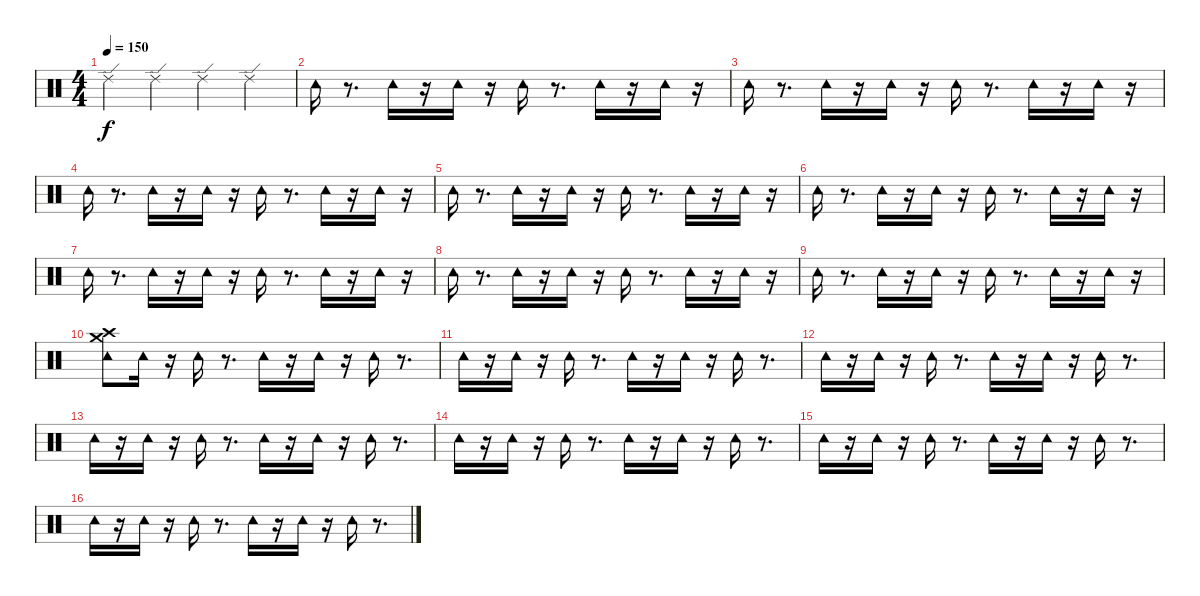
\track "" {instrument percussion}
\staff {score}
\articulation defaults
\ts (4 4)
\tempo 150
\clef neutral
\ks c "Ride (edge) 2".4{dy f} "Ride (edge) 2".4 "Ride (edge) 2".4 "Ride (edge) 2".4
|
"Tambourine (hit)".16 r.8{d} "Tambourine (hit)".16 r.16 "Tambourine (hit)".16 r.16 "Tambourine (hit)".16 r.8{d} "Tambourine (hit)".16 r.16 "Tambourine (hit)".16 r.16 |
"Tambourine (hit)".16 r.8{d} "Tambourine (hit)".16 r.16 "Tambourine (hit)".16 r.16 "Tambourine (hit)".16 r.8{d} "Tambourine (hit)".16 r.16 "Tambourine (hit)".16 r.16 |
"Tambourine (hit)".16 r.8{d} "Tambourine (hit)".16 r.16 "Tambourine (hit)".16 r.16 "Tambourine (hit)".16 r.8{d} "Tambourine (hit)".16 r.16 "Tambourine (hit)".16 r.16 |
"Tambourine (hit)".16 r.8{d} "Tambourine (hit)".16 r.16 "Tambourine (hit)".16 r.16 "Tambourine (hit)".16 r.8{d} "Tambourine (hit)".16 r.16 "Tambourine (hit)".16 r.16 |
"Tambourine (hit)".16 r.8{d} "Tambourine (hit)".16 r.16 "Tambourine (hit)".16 r.16 "Tambourine (hit)".16 r.8{d} "Tambourine (hit)".16 r.16 "Tambourine (hit)".16 r.16 |
"Tambourine (hit)".16 r.8{d} "Tambourine (hit)".16 r.16 "Tambourine (hit)".16 r.16 "Tambourine (hit)".16 r.8{d} "Tambourine (hit)".16 r.16 "Tambourine (hit)".16 r.16 |
"Tambourine (hit)".16 r.8{d} "Tambourine (hit)".16 r.16 "Tambourine (hit)".16 r.16 "Tambourine (hit)".16 r.8{d} "Tambourine (hit)".16 r.16 "Tambourine (hit)".16 r.16 |
"Tambourine (hit)".16 r.8{d} "Tambourine (hit)".16 r.16 "Tambourine (hit)".16 r.16 "Tambourine (hit)".16 r.8{d} "Tambourine (hit)".16 r.16 "Tambourine (hit)".16 r.16 |
("Crash medium (hit)" "Crash high (hit)" "Tambourine (hit)").8 "Tambourine (hit)".16 r.16 "Tambourine (hit)".16 r.8{d} "Tambourine (hit)".16 r.16 "Tambourine (hit)".16 r.16 "Tambourine (hit)".16 r.8{d} |
"Tambourine (hit)".16 r.16 "Tambourine (hit)".16 r.16 "Tambourine (hit)".16 r.8{d} "Tambourine (hit)".16 r.16 "Tambourine (hit)".16 r.16 "Tambourine (hit)".16 r.8{d} |
"Tambourine (hit)".16 r.16 "Tambourine (hit)".16 r.16 "Tambourine (hit)".16 r.8{d} "Tambourine (hit)".16 r.16 "Tambourine (hit)".16 r.16 "Tambourine (hit)".16 r.8{d} |
"Tambourine (hit)".16 r.16 "Tambourine (hit)".16 r.16 "Tambourine (hit)".16 r.8{d} "Tambourine (hit)".16 r.16 "Tambourine (hit)".16 r.16 "Tambourine (hit)".16 r.8{d} |
"Tambourine (hit)".16 r.16 "Tambourine (hit)".16 r.16 "Tambourine (hit)".16 r.8{d} "Tambourine (hit)".16 r.16 "Tambourine (hit)".16 r.16 "Tambourine (hit)".16 r.8{d} |
"Tambourine (hit)".16 r.16 "Tambourine (hit)".16 r.16 "Tambourine (hit)".16 r.8{d} "Tambourine (hit)".16 r.16 "Tambourine (hit)".16 r.16 "Tambourine (hit)".16 r.8{d} |
"Tambourine (hit)".16 r.16 "Tambourine (hit)".16 r.16 "Tambourine (hit)".16 r.8{d} "Tambourine (hit)".16 r.16 "Tambourine (hit)".16 r.16 "Tambourine (hit)".16 r.8{d}
